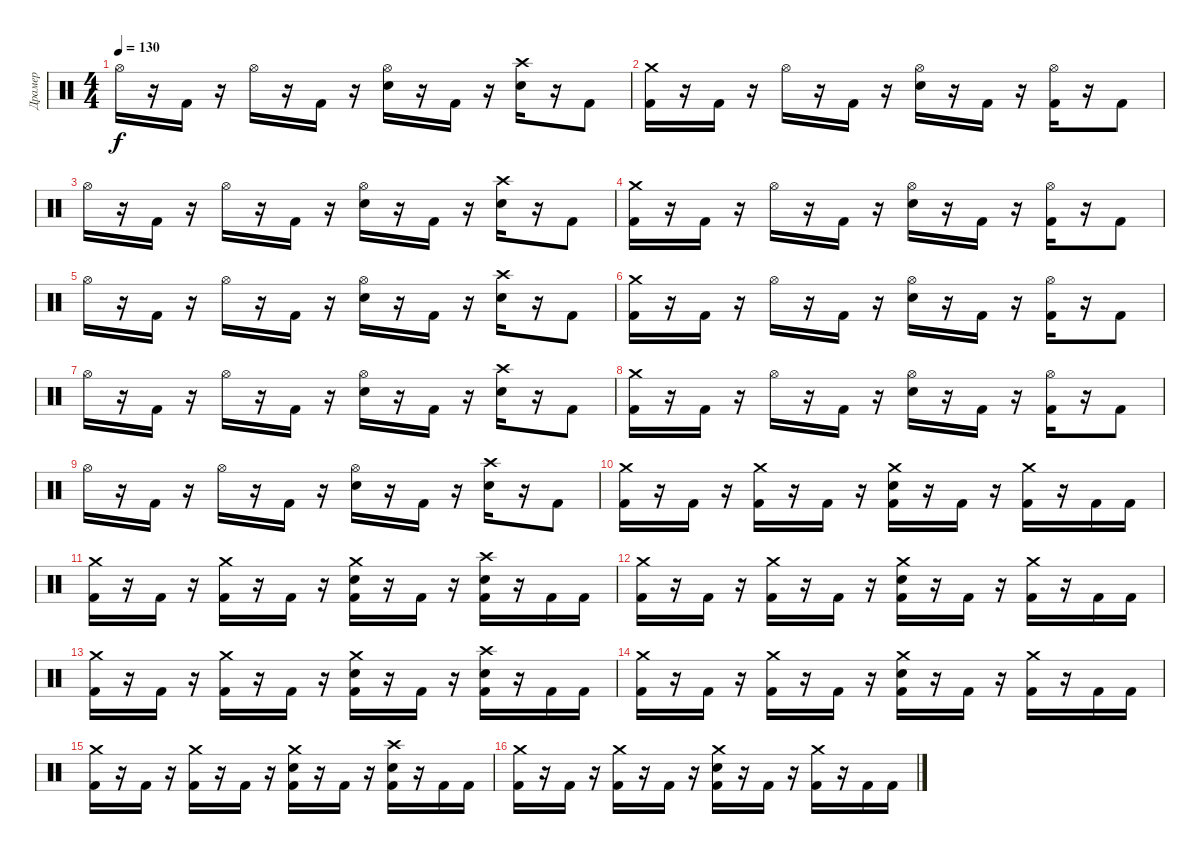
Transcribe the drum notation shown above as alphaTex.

\track ("Драмер" "Драмер") {instrument percussion}
\staff {score}
\articulation defaults
\ts (4 4)
\tempo 130
\clef neutral
\ks c "Hi-Hat (open)".16{dy f}
r.16 "Kick (hit) 2".16 r.16 "Hi-Hat (open)".16 r.16 "Kick (hit) 2".16 r.16 ("Hi-Hat (open)" "Electric Snare (hit)").16 r.16 "Kick (hit) 2".16 r.16 ("Crash high (hit)" "Electric Snare (hit)").16 r.16 "Kick (hit) 2".8 |
("Crash medium (hit)" "Kick (hit) 2").16 r.16 "Kick (hit) 2".16 r.16 "Hi-Hat (open)".16 r.16 "Kick (hit) 2".16 r.16 ("Hi-Hat (open)" "Electric Snare (hit)").16 r.16 "Kick (hit) 2".16 r.16 ("Hi-Hat (open)" "Kick (hit) 2").16 r.16 "Kick (hit) 2".8 |
"Hi-Hat (open)".16 r.16 "Kick (hit) 2".16 r.16 "Hi-Hat (open)".16 r.16 "Kick (hit) 2".16 r.16 ("Hi-Hat (open)" "Electric Snare (hit)").16 r.16 "Kick (hit) 2".16 r.16 ("Crash high (hit)" "Electric Snare (hit)").16 r.16 "Kick (hit) 2".8 |
("Crash medium (hit)" "Kick (hit) 2").16 r.16 "Kick (hit) 2".16 r.16 "Hi-Hat (open)".16 r.16 "Kick (hit) 2".16 r.16 ("Hi-Hat (open)" "Electric Snare (hit)").16 r.16 "Kick (hit) 2".16 r.16 ("Hi-Hat (open)" "Kick (hit) 2").16 r.16 "Kick (hit) 2".8 |
"Hi-Hat (open)".16 r.16 "Kick (hit) 2".16 r.16 "Hi-Hat (open)".16 r.16 "Kick (hit) 2".16 r.16 ("Hi-Hat (open)" "Electric Snare (hit)").16 r.16 "Kick (hit) 2".16 r.16 ("Crash high (hit)" "Electric Snare (hit)").16 r.16 "Kick (hit) 2".8 |
("Crash medium (hit)" "Kick (hit) 2").16 r.16 "Kick (hit) 2".16 r.16 "Hi-Hat (open)".16 r.16 "Kick (hit) 2".16 r.16 ("Hi-Hat (open)" "Electric Snare (hit)").16 r.16 "Kick (hit) 2".16 r.16 ("Hi-Hat (open)" "Kick (hit) 2").16 r.16 "Kick (hit) 2".8 |
"Hi-Hat (open)".16 r.16 "Kick (hit) 2".16 r.16 "Hi-Hat (open)".16 r.16 "Kick (hit) 2".16 r.16 ("Hi-Hat (open)" "Electric Snare (hit)").16 r.16 "Kick (hit) 2".16 r.16 ("Crash high (hit)" "Electric Snare (hit)").16 r.16 "Kick (hit) 2".8 |
("Crash medium (hit)" "Kick (hit) 2").16 r.16 "Kick (hit) 2".16 r.16 "Hi-Hat (open)".16 r.16 "Kick (hit) 2".16 r.16 ("Hi-Hat (open)" "Electric Snare (hit)").16 r.16 "Kick (hit) 2".16 r.16 ("Hi-Hat (open)" "Kick (hit) 2").16 r.16 "Kick (hit) 2".8 |
"Hi-Hat (open)".16 r.16 "Kick (hit) 2".16 r.16 "Hi-Hat (open)".16 r.16 "Kick (hit) 2".16 r.16 ("Hi-Hat (open)" "Electric Snare (hit)").16 r.16 "Kick (hit) 2".16 r.16 ("Crash high (hit)" "Electric Snare (hit)").16 r.16 "Kick (hit) 2".8 |
("Crash medium (hit)" "Kick (hit) 2").16 r.16 "Kick (hit) 2".16 r.16 ("Crash medium (hit)" "Kick (hit) 2").16 r.16 "Kick (hit) 2".16 r.16 ("Crash medium (hit)" "Electric Snare (hit)" "Kick (hit) 2").16 r.16 "Kick (hit) 2".16 r.16 ("Crash medium (hit)" "Kick (hit) 2").16 r.16 "Kick (hit) 2".16 "Kick (hit) 2".16 |
("Crash medium (hit)" "Kick (hit) 2").16 r.16 "Kick (hit) 2".16 r.16 ("Crash medium (hit)" "Kick (hit) 2").16 r.16 "Kick (hit) 2".16 r.16 ("Crash medium (hit)" "Electric Snare (hit)" "Kick (hit) 2").16 r.16 "Kick (hit) 2".16 r.16 ("Crash high (hit)" "Electric Snare (hit)" "Kick (hit) 2").16 r.16 "Kick (hit) 2".16 "Kick (hit) 2".16 |
("Crash medium (hit)" "Kick (hit) 2").16 r.16 "Kick (hit) 2".16 r.16 ("Crash medium (hit)" "Kick (hit) 2").16 r.16 "Kick (hit) 2".16 r.16 ("Crash medium (hit)" "Electric Snare (hit)" "Kick (hit) 2").16 r.16 "Kick (hit) 2".16 r.16 ("Crash medium (hit)" "Kick (hit) 2").16 r.16 "Kick (hit) 2".16 "Kick (hit) 2".16 |
("Crash medium (hit)" "Kick (hit) 2").16 r.16 "Kick (hit) 2".16 r.16 ("Crash medium (hit)" "Kick (hit) 2").16 r.16 "Kick (hit) 2".16 r.16 ("Crash medium (hit)" "Electric Snare (hit)" "Kick (hit) 2").16 r.16 "Kick (hit) 2".16 r.16 ("Crash high (hit)" "Electric Snare (hit)" "Kick (hit) 2").16 r.16 "Kick (hit) 2".16 "Kick (hit) 2".16 |
("Crash medium (hit)" "Kick (hit) 2").16 r.16 "Kick (hit) 2".16 r.16 ("Crash medium (hit)" "Kick (hit) 2").16 r.16 "Kick (hit) 2".16 r.16 ("Crash medium (hit)" "Electric Snare (hit)" "Kick (hit) 2").16 r.16 "Kick (hit) 2".16 r.16 ("Crash medium (hit)" "Kick (hit) 2").16 r.16 "Kick (hit) 2".16 "Kick (hit) 2".16 |
("Crash medium (hit)" "Kick (hit) 2").16 r.16 "Kick (hit) 2".16 r.16 ("Crash medium (hit)" "Kick (hit) 2").16 r.16 "Kick (hit) 2".16 r.16 ("Crash medium (hit)" "Electric Snare (hit)" "Kick (hit) 2").16 r.16 "Kick (hit) 2".16 r.16 ("Crash high (hit)" "Electric Snare (hit)" "Kick (hit) 2").16 r.16 "Kick (hit) 2".16 "Kick (hit) 2".16 |
("Crash medium (hit)" "Kick (hit) 2").16 r.16 "Kick (hit) 2".16 r.16 ("Crash medium (hit)" "Kick (hit) 2").16 r.16 "Kick (hit) 2".16 r.16 ("Crash medium (hit)" "Electric Snare (hit)" "Kick (hit) 2").16 r.16 "Kick (hit) 2".16 r.16 ("Crash medium (hit)" "Kick (hit) 2").16 r.16 "Kick (hit) 2".16 "Kick (hit) 2".16
